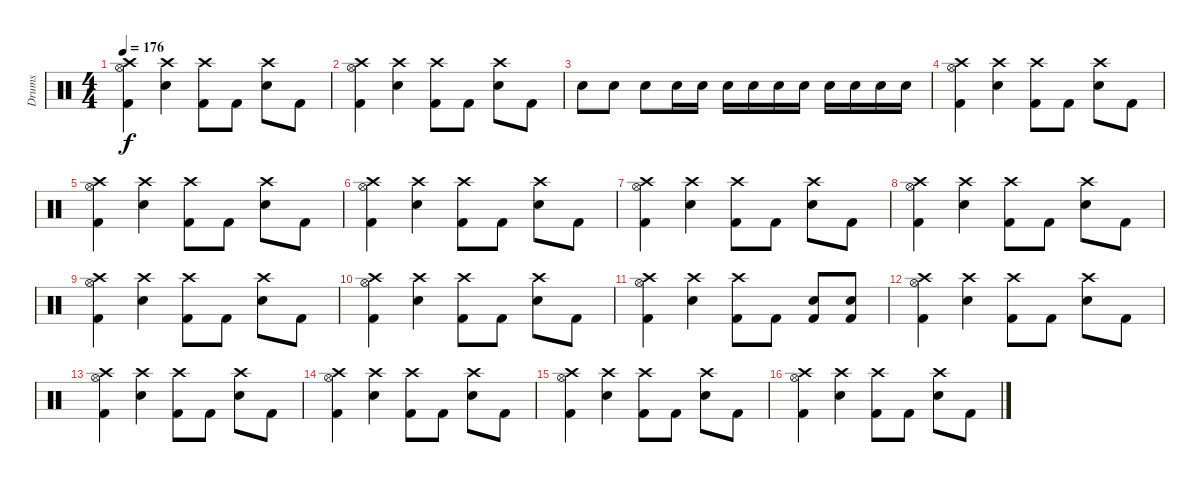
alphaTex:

\track ("Drums" "Drums") {instrument percussion}
\staff {score}
\articulation defaults
\ts (4 4)
\tempo 176
\clef neutral
\ks c
("Kick (hit) 2" "Hi-Hat (open)" "Crash high (hit)").4{dy f} ("Snare (hit) 2" "Crash high (hit)").4 ("Kick (hit) 2" "Crash high (hit)").8 "Kick (hit) 2".8 ("Snare (hit) 2" "Crash high (hit)").8 "Kick (hit) 2".8 |
("Kick (hit) 2" "Hi-Hat (open)" "Crash high (hit)").4 ("Snare (hit) 2" "Crash high (hit)").4 ("Kick (hit) 2" "Crash high (hit)").8 "Kick (hit) 2".8 ("Snare (hit) 2" "Crash high (hit)").8 "Kick (hit) 2".8 |
"Snare (hit) 2".8 "Snare (hit) 2".8 "Snare (hit) 2".8 "Snare (hit) 2".16 "Snare (hit) 2".16 "Snare (hit) 2".16 "Snare (hit) 2".16 "Snare (hit) 2".16 "Snare (hit) 2".16 "Snare (hit) 2".16 "Snare (hit) 2".16 "Snare (hit) 2".16 "Snare (hit) 2".16 |
("Kick (hit) 2" "Hi-Hat (open)" "Crash high (hit)").4 ("Snare (hit) 2" "Crash high (hit)").4 ("Kick (hit) 2" "Crash high (hit)").8 "Kick (hit) 2".8 ("Snare (hit) 2" "Crash high (hit)").8 "Kick (hit) 2".8 |
("Kick (hit) 2" "Hi-Hat (open)" "Crash high (hit)").4 ("Snare (hit) 2" "Crash high (hit)").4 ("Kick (hit) 2" "Crash high (hit)").8 "Kick (hit) 2".8 ("Snare (hit) 2" "Crash high (hit)").8 "Kick (hit) 2".8 |
("Kick (hit) 2" "Hi-Hat (open)" "Crash high (hit)").4 ("Snare (hit) 2" "Crash high (hit)").4 ("Kick (hit) 2" "Crash high (hit)").8 "Kick (hit) 2".8 ("Snare (hit) 2" "Crash high (hit)").8 "Kick (hit) 2".8 |
("Kick (hit) 2" "Hi-Hat (open)" "Crash high (hit)").4 ("Snare (hit) 2" "Crash high (hit)").4 ("Kick (hit) 2" "Crash high (hit)").8 "Kick (hit) 2".8 ("Snare (hit) 2" "Crash high (hit)").8 "Kick (hit) 2".8 |
("Kick (hit) 2" "Hi-Hat (open)" "Crash high (hit)").4 ("Snare (hit) 2" "Crash high (hit)").4 ("Kick (hit) 2" "Crash high (hit)").8 "Kick (hit) 2".8 ("Snare (hit) 2" "Crash high (hit)").8 "Kick (hit) 2".8 |
("Kick (hit) 2" "Hi-Hat (open)" "Crash high (hit)").4 ("Snare (hit) 2" "Crash high (hit)").4 ("Kick (hit) 2" "Crash high (hit)").8 "Kick (hit) 2".8 ("Snare (hit) 2" "Crash high (hit)").8 "Kick (hit) 2".8 |
("Kick (hit) 2" "Hi-Hat (open)" "Crash high (hit)").4 ("Snare (hit) 2" "Crash high (hit)").4 ("Kick (hit) 2" "Crash high (hit)").8 "Kick (hit) 2".8 ("Snare (hit) 2" "Crash high (hit)").8 "Kick (hit) 2".8 |
("Kick (hit) 2" "Hi-Hat (open)" "Crash high (hit)").4 ("Snare (hit) 2" "Crash high (hit)").4 ("Kick (hit) 2" "Crash high (hit)").8 "Kick (hit) 2".8 ("Kick (hit) 2" "Snare (hit) 2").8 ("Kick (hit) 2" "Snare (hit) 2").8 |
("Kick (hit) 2" "Hi-Hat (open)" "Crash high (hit)").4{volume 11} ("Snare (hit) 2" "Crash high (hit)").4 ("Kick (hit) 2" "Crash high (hit)").8 "Kick (hit) 2".8 ("Snare (hit) 2" "Crash high (hit)").8 "Kick (hit) 2".8 |
("Kick (hit) 2" "Hi-Hat (open)" "Crash high (hit)").4 ("Snare (hit) 2" "Crash high (hit)").4 ("Kick (hit) 2" "Crash high (hit)").8 "Kick (hit) 2".8 ("Snare (hit) 2" "Crash high (hit)").8 "Kick (hit) 2".8 |
("Kick (hit) 2" "Hi-Hat (open)" "Crash high (hit)").4 ("Snare (hit) 2" "Crash high (hit)").4 ("Kick (hit) 2" "Crash high (hit)").8 "Kick (hit) 2".8 ("Snare (hit) 2" "Crash high (hit)").8 "Kick (hit) 2".8 |
("Kick (hit) 2" "Hi-Hat (open)" "Crash high (hit)").4 ("Snare (hit) 2" "Crash high (hit)").4 ("Kick (hit) 2" "Crash high (hit)").8 "Kick (hit) 2".8 ("Snare (hit) 2" "Crash high (hit)").8 "Kick (hit) 2".8 |
("Kick (hit) 2" "Hi-Hat (open)" "Crash high (hit)").4 ("Snare (hit) 2" "Crash high (hit)").4 ("Kick (hit) 2" "Crash high (hit)").8 "Kick (hit) 2".8 ("Snare (hit) 2" "Crash high (hit)").8 "Kick (hit) 2".8
